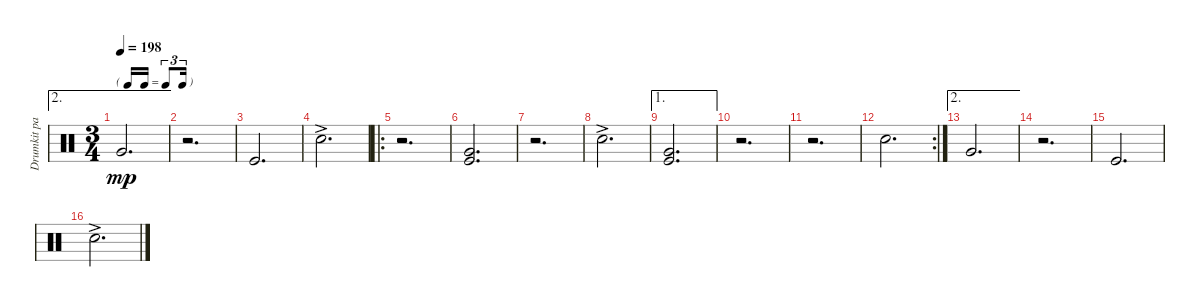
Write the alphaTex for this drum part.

\track ("Drumkit part 2" "Drumkit pa") {instrument percussion}
\staff {score}
\articulation defaults
\ae 2
\ts (3 4)
\tf triplet16th
\tempo 198
\clef neutral
\ks c "Very Low Tom (hit)".2{d dy mp}
|
r.2{d} |
"Kick (hit)".2{d} |
"Snare (hit) 2"{ac}.2{d} |
\ro
r.2{d} |
("Kick (hit)" "Very Low Tom (hit)").2{d} |
r.2{d} |
"Snare (hit) 2"{ac}.2{d} |
\ae 1
("Kick (hit)" "Very Low Tom (hit)").2{d} |
r.2{d} |
r.2{d} |
\rc 2 "Snare (hit) 2".2{d}
|
\ae 2 "Very Low Tom (hit)".2{d}
|
r.2{d} |
"Kick (hit)".2{d} |
"Snare (hit) 2"{ac}.2{d}
